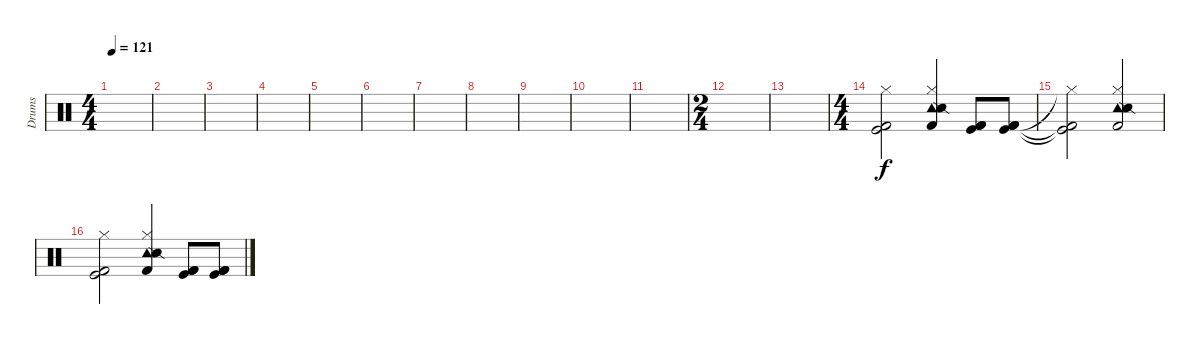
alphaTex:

\track ("Drums" "Drums") {instrument percussion}
\staff {score}
\articulation defaults
\ts (4 4)
\tempo 121
\clef neutral
\ks c
|
|
|
|
|
|
|
|
|
|
|
\ts (2 4)
|
|
\ts (4 4)
("Kick (hit) 2" "Kick (hit)" "Hi-Hat (closed)").2 ("Tambourine (hit)" "Snare (side stick) 2" "Kick (hit) 2" "Hi-Hat (closed)").4 ("Kick (hit) 2" "Kick (hit)" "Kick (hit) 2").8 ("Kick (hit) 2" "Kick (hit)" "Kick (hit) 2").8 |
("Kick (hit) 2"{t} "Kick (hit)"{t} "Hi-Hat (closed)"{t}).2 ("Tambourine (hit)" "Snare (side stick) 2" "Kick (hit) 2" "Hi-Hat (closed)").2 |
("Kick (hit) 2" "Kick (hit)" "Hi-Hat (closed)").2 ("Tambourine (hit)" "Snare (side stick) 2" "Kick (hit) 2" "Hi-Hat (closed)").4 ("Kick (hit) 2" "Kick (hit)" "Kick (hit) 2").8 ("Kick (hit) 2" "Kick (hit)" "Kick (hit) 2").8
